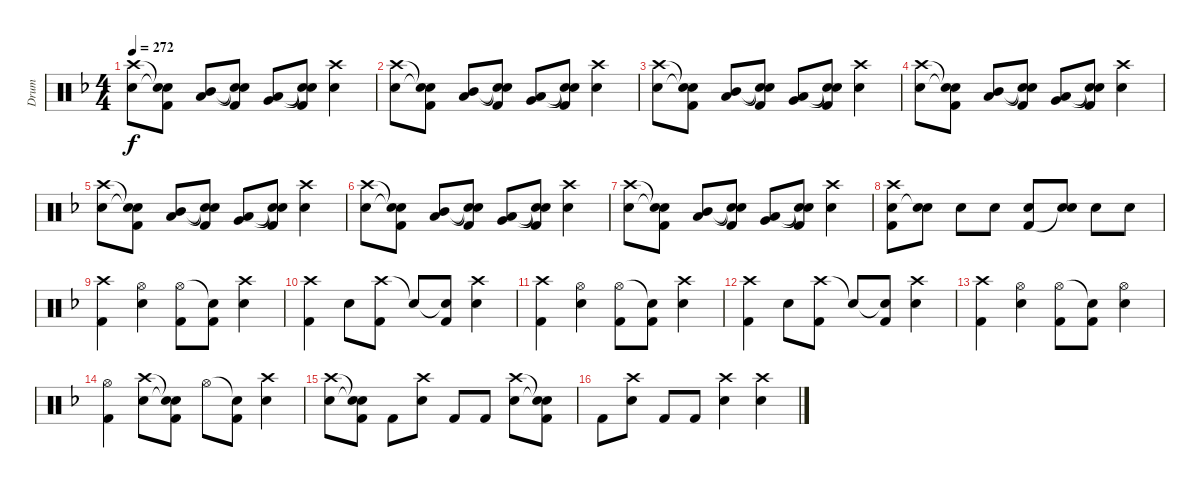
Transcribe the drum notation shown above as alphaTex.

\track ("Drum" "Drum") {instrument percussion}
\staff {score}
\articulation defaults
\ts (4 4)
\tempo 272
\clef neutral
\ks f
("Crash high (hit)" "Electric Snare (hit)").8{dy f} ("Snare (hit)"{t} "Snare (hit)"{t} "Kick (hit) 2").8 ("Mid Tom (hit)" "Low Tom (hit)").8 ("Snare (hit)"{t} "Snare (hit)"{t} "Kick (hit) 2").8 ("Low Tom (hit)" "Very Low Tom (hit)").8 ("Snare (hit)"{t} "Snare (hit)"{t} "Kick (hit) 2").8 ("Crash high (hit)" "Electric Snare (hit)").4 |
("Crash high (hit)" "Electric Snare (hit)").8 ("Snare (hit)"{t} "Snare (hit)"{t} "Kick (hit) 2").8 ("Mid Tom (hit)" "Low Tom (hit)").8 ("Snare (hit)"{t} "Snare (hit)"{t} "Kick (hit) 2").8 ("Low Tom (hit)" "Very Low Tom (hit)").8 ("Snare (hit)"{t} "Snare (hit)"{t} "Kick (hit) 2").8 ("Crash high (hit)" "Electric Snare (hit)").4 |
("Crash high (hit)" "Electric Snare (hit)").8 ("Snare (hit)"{t} "Snare (hit)"{t} "Kick (hit) 2").8 ("Mid Tom (hit)" "Low Tom (hit)").8 ("Snare (hit)"{t} "Snare (hit)"{t} "Kick (hit) 2").8 ("Low Tom (hit)" "Very Low Tom (hit)").8 ("Snare (hit)"{t} "Snare (hit)"{t} "Kick (hit) 2").8 ("Crash high (hit)" "Electric Snare (hit)").4 |
("Crash high (hit)" "Electric Snare (hit)").8 ("Snare (hit)"{t} "Snare (hit)"{t} "Kick (hit) 2").8 ("Mid Tom (hit)" "Low Tom (hit)").8 ("Snare (hit)"{t} "Snare (hit)"{t} "Kick (hit) 2").8 ("Low Tom (hit)" "Very Low Tom (hit)").8 ("Snare (hit)"{t} "Snare (hit)"{t} "Kick (hit) 2").8 ("Crash high (hit)" "Electric Snare (hit)").4 |
("Crash high (hit)" "Electric Snare (hit)").8 ("Snare (hit)"{t} "Snare (hit)"{t} "Kick (hit) 2").8 ("Mid Tom (hit)" "Low Tom (hit)").8 ("Snare (hit)"{t} "Snare (hit)"{t} "Kick (hit) 2").8 ("Low Tom (hit)" "Very Low Tom (hit)").8 ("Snare (hit)"{t} "Snare (hit)"{t} "Kick (hit) 2").8 ("Crash high (hit)" "Electric Snare (hit)").4 |
("Crash high (hit)" "Electric Snare (hit)").8 ("Snare (hit)"{t} "Snare (hit)"{t} "Kick (hit) 2").8 ("Mid Tom (hit)" "Low Tom (hit)").8 ("Snare (hit)"{t} "Snare (hit)"{t} "Kick (hit) 2").8 ("Low Tom (hit)" "Very Low Tom (hit)").8 ("Snare (hit)"{t} "Snare (hit)"{t} "Kick (hit) 2").8 ("Crash high (hit)" "Electric Snare (hit)").4 |
("Crash high (hit)" "Electric Snare (hit)").8 ("Snare (hit)"{t} "Snare (hit)"{t} "Kick (hit) 2").8 ("Mid Tom (hit)" "Low Tom (hit)").8 ("Snare (hit)"{t} "Snare (hit)"{t} "Kick (hit) 2").8 ("Low Tom (hit)" "Very Low Tom (hit)").8 ("Snare (hit)"{t} "Snare (hit)"{t} "Kick (hit) 2").8 ("Crash high (hit)" "Electric Snare (hit)").4 |
("Crash high (hit)" "Electric Snare (hit)" "Kick (hit) 2").8 ("Electric Snare (hit)" "Snare (hit)"{t}).8 "Electric Snare (hit)".8 "Electric Snare (hit)".8 ("Electric Snare (hit)" "Kick (hit) 2").8 ("Electric Snare (hit)" "Snare (hit)"{t}).8 "Electric Snare (hit)".8 "Electric Snare (hit)".8 |
("Crash high (hit)" "Kick (hit) 2").4 ("Hi-Hat (open)" "Electric Snare (hit)").4 ("Hi-Hat (open)" "Kick (hit) 2").8 ("Snare (hit)"{t} "Kick (hit) 2").8 ("Crash high (hit)" "Electric Snare (hit)").4 |
("Crash high (hit)" "Kick (hit) 2").4 "Electric Snare (hit)".8 ("Crash high (hit)" "Kick (hit) 2").8 "Snare (hit)"{t}.8 ("Snare (hit)"{t} "Kick (hit) 2").8 ("Crash high (hit)" "Electric Snare (hit)").4 |
("Crash high (hit)" "Kick (hit) 2").4 ("Hi-Hat (open)" "Electric Snare (hit)").4 ("Hi-Hat (open)" "Kick (hit) 2").8 ("Snare (hit)"{t} "Kick (hit) 2").8 ("Crash high (hit)" "Electric Snare (hit)").4 |
("Crash high (hit)" "Kick (hit) 2").4 "Electric Snare (hit)".8 ("Crash high (hit)" "Kick (hit) 2").8 "Snare (hit)"{t}.8 ("Snare (hit)"{t} "Kick (hit) 2").8 ("Crash high (hit)" "Electric Snare (hit)").4 |
("Crash high (hit)" "Kick (hit) 2").4 ("Hi-Hat (open)" "Electric Snare (hit)").4 ("Hi-Hat (open)" "Kick (hit) 2").8 ("Snare (hit)"{t} "Kick (hit) 2").8 ("Hi-Hat (open)" "Electric Snare (hit)").4 |
("Hi-Hat (open)" "Kick (hit) 2").4 ("Crash high (hit)" "Electric Snare (hit)").8 ("Snare (hit)"{t} "Snare (hit)"{t} "Kick (hit) 2").8 "Hi-Hat (open)".8 ("Snare (hit)"{t} "Kick (hit) 2").8 ("Crash high (hit)" "Electric Snare (hit)").4 |
("Crash high (hit)" "Electric Snare (hit)").8 ("Snare (hit)"{t} "Snare (hit)"{t} "Kick (hit) 2").8 "Kick (hit) 2".8 ("Crash high (hit)" "Electric Snare (hit)").8 "Kick (hit) 2".8 "Kick (hit) 2".8 ("Crash high (hit)" "Electric Snare (hit)").8 ("Snare (hit)"{t} "Snare (hit)"{t} "Kick (hit) 2").8 |
"Kick (hit) 2".8 ("Crash high (hit)" "Electric Snare (hit)").8 "Kick (hit) 2".8 "Kick (hit) 2".8 ("Crash high (hit)" "Electric Snare (hit)").4 ("Crash high (hit)" "Electric Snare (hit)").4
